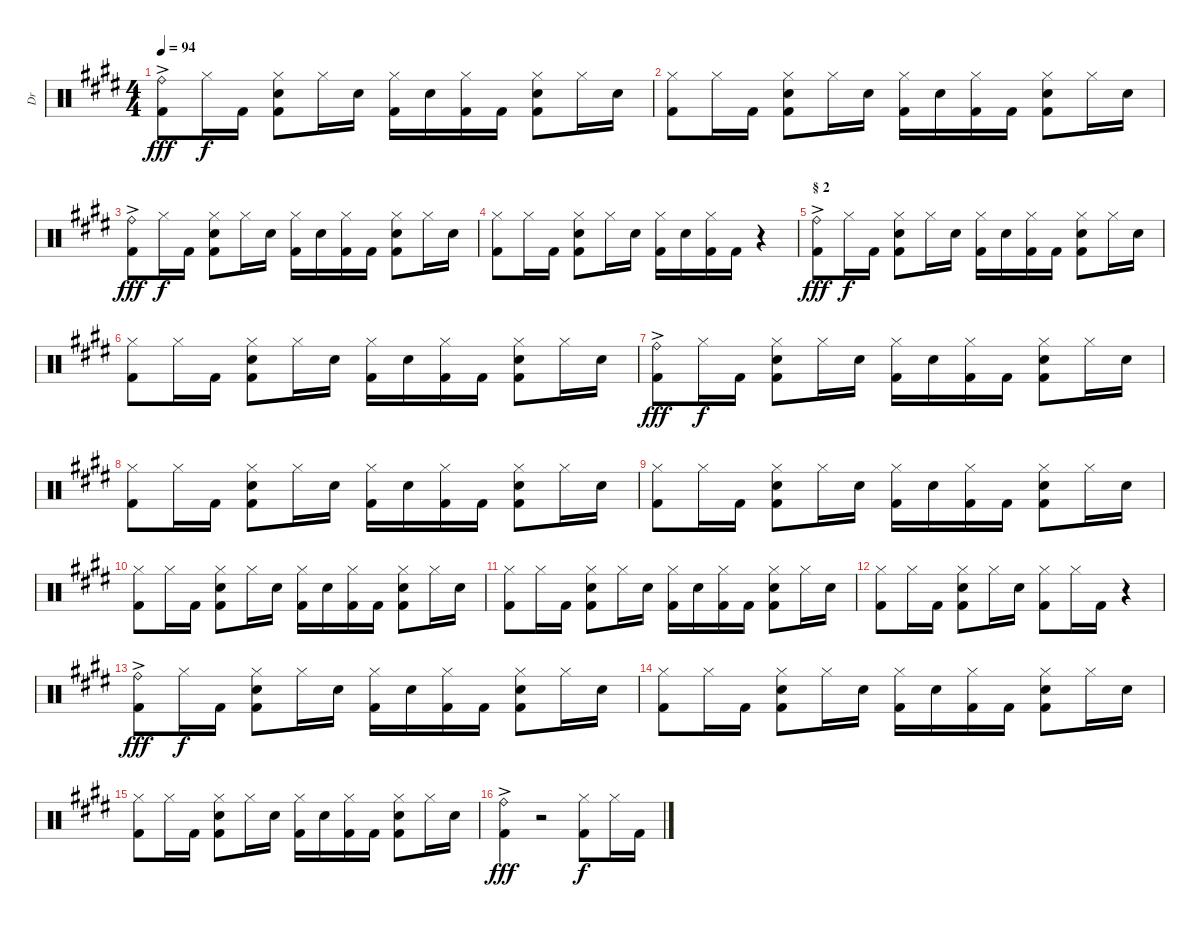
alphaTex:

\track ("Dr" "Dr") {instrument percussion}
\staff {score}
\articulation defaults
\ts (4 4)
\tempo 94
\clef neutral
\ks e
("Ride (bell)"{ac} "Kick (hit) 2"{ac}).8{dy fff} "Hi-Hat (closed)".16{dy f} "Kick (hit) 2".16 ("Hi-Hat (closed)" "Electric Snare (hit)" "Kick (hit) 2").8 "Hi-Hat (closed)".16 "Electric Snare (hit)".16 ("Hi-Hat (closed)" "Kick (hit) 2").16 "Electric Snare (hit)".16 ("Hi-Hat (closed)" "Kick (hit) 2").16 "Kick (hit) 2".16 ("Hi-Hat (closed)" "Electric Snare (hit)" "Kick (hit) 2").8 "Hi-Hat (closed)".16 "Electric Snare (hit)".16 |
("Hi-Hat (closed)" "Kick (hit) 2").8 "Hi-Hat (closed)".16 "Kick (hit) 2".16 ("Hi-Hat (closed)" "Electric Snare (hit)" "Kick (hit) 2").8 "Hi-Hat (closed)".16 "Electric Snare (hit)".16 ("Hi-Hat (closed)" "Kick (hit) 2").16 "Electric Snare (hit)".16 ("Hi-Hat (closed)" "Kick (hit) 2").16 "Kick (hit) 2".16 ("Hi-Hat (closed)" "Electric Snare (hit)" "Kick (hit) 2").8 "Hi-Hat (closed)".16 "Electric Snare (hit)".16 |
("Ride (bell)"{ac} "Kick (hit) 2"{ac}).8{dy fff} "Hi-Hat (closed)".16{dy f} "Kick (hit) 2".16 ("Hi-Hat (closed)" "Electric Snare (hit)" "Kick (hit) 2").8 "Hi-Hat (closed)".16 "Electric Snare (hit)".16 ("Hi-Hat (closed)" "Kick (hit) 2").16 "Electric Snare (hit)".16 ("Hi-Hat (closed)" "Kick (hit) 2").16 "Kick (hit) 2".16 ("Hi-Hat (closed)" "Electric Snare (hit)" "Kick (hit) 2").8 "Hi-Hat (closed)".16 "Electric Snare (hit)".16 |
("Hi-Hat (closed)" "Kick (hit) 2").8 "Hi-Hat (closed)".16 "Kick (hit) 2".16 ("Hi-Hat (closed)" "Electric Snare (hit)" "Kick (hit) 2").8 "Hi-Hat (closed)".16 "Electric Snare (hit)".16 ("Hi-Hat (closed)" "Kick (hit) 2").16 "Electric Snare (hit)".16 ("Hi-Hat (closed)" "Kick (hit) 2").16 "Kick (hit) 2".16 r.4 |
\section ("" "§ 2")
("Ride (bell)"{ac} "Kick (hit) 2"{ac}).8{dy fff} "Hi-Hat (closed)".16{dy f} "Kick (hit) 2".16 ("Hi-Hat (closed)" "Electric Snare (hit)" "Kick (hit) 2").8 "Hi-Hat (closed)".16 "Electric Snare (hit)".16 ("Hi-Hat (closed)" "Kick (hit) 2").16 "Electric Snare (hit)".16 ("Hi-Hat (closed)" "Kick (hit) 2").16 "Kick (hit) 2".16 ("Hi-Hat (closed)" "Electric Snare (hit)" "Kick (hit) 2").8 "Hi-Hat (closed)".16 "Electric Snare (hit)".16 |
("Hi-Hat (closed)" "Kick (hit) 2").8 "Hi-Hat (closed)".16 "Kick (hit) 2".16 ("Hi-Hat (closed)" "Electric Snare (hit)" "Kick (hit) 2").8 "Hi-Hat (closed)".16 "Electric Snare (hit)".16 ("Hi-Hat (closed)" "Kick (hit) 2").16 "Electric Snare (hit)".16 ("Hi-Hat (closed)" "Kick (hit) 2").16 "Kick (hit) 2".16 ("Hi-Hat (closed)" "Electric Snare (hit)" "Kick (hit) 2").8 "Hi-Hat (closed)".16 "Electric Snare (hit)".16 |
("Ride (bell)"{ac} "Kick (hit) 2"{ac}).8{dy fff} "Hi-Hat (closed)".16{dy f} "Kick (hit) 2".16 ("Hi-Hat (closed)" "Electric Snare (hit)" "Kick (hit) 2").8 "Hi-Hat (closed)".16 "Electric Snare (hit)".16 ("Hi-Hat (closed)" "Kick (hit) 2").16 "Electric Snare (hit)".16 ("Hi-Hat (closed)" "Kick (hit) 2").16 "Kick (hit) 2".16 ("Hi-Hat (closed)" "Electric Snare (hit)" "Kick (hit) 2").8 "Hi-Hat (closed)".16 "Electric Snare (hit)".16 |
("Hi-Hat (closed)" "Kick (hit) 2").8 "Hi-Hat (closed)".16 "Kick (hit) 2".16 ("Hi-Hat (closed)" "Electric Snare (hit)" "Kick (hit) 2").8 "Hi-Hat (closed)".16 "Electric Snare (hit)".16 ("Hi-Hat (closed)" "Kick (hit) 2").16 "Electric Snare (hit)".16 ("Hi-Hat (closed)" "Kick (hit) 2").16 "Kick (hit) 2".16 ("Hi-Hat (closed)" "Electric Snare (hit)" "Kick (hit) 2").8 "Hi-Hat (closed)".16 "Electric Snare (hit)".16 |
("Hi-Hat (closed)" "Kick (hit) 2").8 "Hi-Hat (closed)".16 "Kick (hit) 2".16 ("Hi-Hat (closed)" "Electric Snare (hit)" "Kick (hit) 2").8 "Hi-Hat (closed)".16 "Electric Snare (hit)".16 ("Hi-Hat (closed)" "Kick (hit) 2").16 "Electric Snare (hit)".16 ("Hi-Hat (closed)" "Kick (hit) 2").16 "Kick (hit) 2".16 ("Hi-Hat (closed)" "Electric Snare (hit)" "Kick (hit) 2").8 "Hi-Hat (closed)".16 "Electric Snare (hit)".16 |
("Hi-Hat (closed)" "Kick (hit) 2").8 "Hi-Hat (closed)".16 "Kick (hit) 2".16 ("Hi-Hat (closed)" "Electric Snare (hit)" "Kick (hit) 2").8 "Hi-Hat (closed)".16 "Electric Snare (hit)".16 ("Hi-Hat (closed)" "Kick (hit) 2").16 "Electric Snare (hit)".16 ("Hi-Hat (closed)" "Kick (hit) 2").16 "Kick (hit) 2".16 ("Hi-Hat (closed)" "Electric Snare (hit)" "Kick (hit) 2").8 "Hi-Hat (closed)".16 "Electric Snare (hit)".16 |
("Hi-Hat (closed)" "Kick (hit) 2").8 "Hi-Hat (closed)".16 "Kick (hit) 2".16 ("Hi-Hat (closed)" "Electric Snare (hit)" "Kick (hit) 2").8 "Hi-Hat (closed)".16 "Electric Snare (hit)".16 ("Hi-Hat (closed)" "Kick (hit) 2").16 "Electric Snare (hit)".16 ("Hi-Hat (closed)" "Kick (hit) 2").16 "Kick (hit) 2".16 ("Hi-Hat (closed)" "Electric Snare (hit)" "Kick (hit) 2").8 "Hi-Hat (closed)".16 "Electric Snare (hit)".16 |
("Hi-Hat (closed)" "Kick (hit) 2").8 "Hi-Hat (closed)".16 "Kick (hit) 2".16 ("Hi-Hat (closed)" "Electric Snare (hit)" "Kick (hit) 2").8 "Hi-Hat (closed)".16 "Electric Snare (hit)".16 ("Hi-Hat (closed)" "Kick (hit) 2").8 "Hi-Hat (closed)".16 "Kick (hit) 2".16 r.4 |
("Ride (bell)"{ac} "Kick (hit) 2"{ac}).8{dy fff} "Hi-Hat (closed)".16{dy f} "Kick (hit) 2".16 ("Hi-Hat (closed)" "Electric Snare (hit)" "Kick (hit) 2").8 "Hi-Hat (closed)".16 "Electric Snare (hit)".16 ("Hi-Hat (closed)" "Kick (hit) 2").16 "Electric Snare (hit)".16 ("Hi-Hat (closed)" "Kick (hit) 2").16 "Kick (hit) 2".16 ("Hi-Hat (closed)" "Electric Snare (hit)" "Kick (hit) 2").8 "Hi-Hat (closed)".16 "Electric Snare (hit)".16 |
("Hi-Hat (closed)" "Kick (hit) 2").8 "Hi-Hat (closed)".16 "Kick (hit) 2".16 ("Hi-Hat (closed)" "Electric Snare (hit)" "Kick (hit) 2").8 "Hi-Hat (closed)".16 "Electric Snare (hit)".16 ("Hi-Hat (closed)" "Kick (hit) 2").16 "Electric Snare (hit)".16 ("Hi-Hat (closed)" "Kick (hit) 2").16 "Kick (hit) 2".16 ("Hi-Hat (closed)" "Electric Snare (hit)" "Kick (hit) 2").8 "Hi-Hat (closed)".16 "Electric Snare (hit)".16 |
("Hi-Hat (closed)" "Kick (hit) 2").8 "Hi-Hat (closed)".16 "Kick (hit) 2".16 ("Hi-Hat (closed)" "Electric Snare (hit)" "Kick (hit) 2").8 "Hi-Hat (closed)".16 "Electric Snare (hit)".16 ("Hi-Hat (closed)" "Kick (hit) 2").16 "Electric Snare (hit)".16 ("Hi-Hat (closed)" "Kick (hit) 2").16 "Kick (hit) 2".16 ("Hi-Hat (closed)" "Electric Snare (hit)" "Kick (hit) 2").8 "Hi-Hat (closed)".16 "Electric Snare (hit)".16 |
("Ride (bell)"{ac} "Kick (hit) 2"{ac}).4{dy fff} r.2 ("Hi-Hat (closed)" "Kick (hit) 2").8{dy f} "Hi-Hat (closed)".16 "Kick (hit) 2".16
